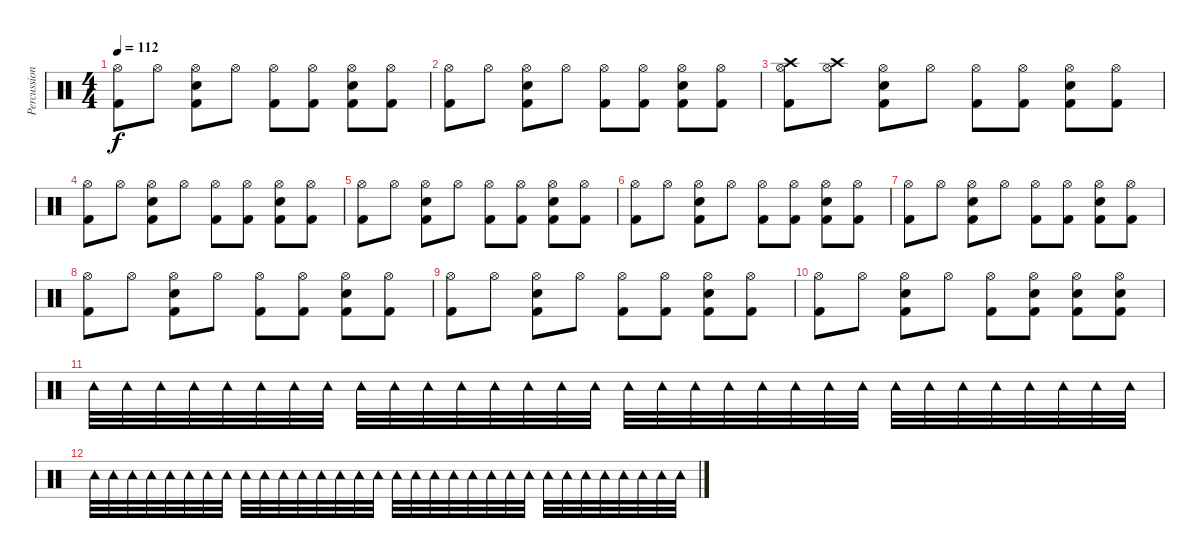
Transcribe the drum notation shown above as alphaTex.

\track ("Percussion" "Percussion") {instrument percussion}
\staff {score}
\articulation defaults
\ts (4 4)
\tempo 112
\clef neutral
\ks c
("Hi-Hat (open)" "Kick (hit) 2").8{dy f} "Hi-Hat (open)".8 ("Hi-Hat (open)" "Electric Snare (hit)" "Kick (hit) 2").8 "Hi-Hat (open)".8 ("Hi-Hat (open)" "Kick (hit) 2").8 ("Hi-Hat (open)" "Kick (hit) 2").8 ("Hi-Hat (open)" "Electric Snare (hit)" "Kick (hit) 2").8 ("Hi-Hat (open)" "Kick (hit) 2").8 |
("Hi-Hat (open)" "Kick (hit) 2").8 "Hi-Hat (open)".8 ("Hi-Hat (open)" "Electric Snare (hit)" "Kick (hit) 2").8 "Hi-Hat (open)".8 ("Hi-Hat (open)" "Kick (hit) 2").8 ("Hi-Hat (open)" "Kick (hit) 2").8 ("Hi-Hat (open)" "Electric Snare (hit)" "Kick (hit) 2").8 ("Hi-Hat (open)" "Kick (hit) 2").8 |
("Hi-Hat (open)" "Crash high (hit)" "Kick (hit) 2").8 ("Hi-Hat (open)" "Crash high (hit)").8 ("Hi-Hat (open)" "Electric Snare (hit)" "Kick (hit) 2").8 "Hi-Hat (open)".8 ("Hi-Hat (open)" "Kick (hit) 2").8 ("Hi-Hat (open)" "Kick (hit) 2").8 ("Hi-Hat (open)" "Electric Snare (hit)" "Kick (hit) 2").8 ("Hi-Hat (open)" "Kick (hit) 2").8 |
("Hi-Hat (open)" "Kick (hit) 2").8 "Hi-Hat (open)".8 ("Hi-Hat (open)" "Electric Snare (hit)" "Kick (hit) 2").8 "Hi-Hat (open)".8 ("Hi-Hat (open)" "Kick (hit) 2").8 ("Hi-Hat (open)" "Kick (hit) 2").8 ("Hi-Hat (open)" "Electric Snare (hit)" "Kick (hit) 2").8 ("Hi-Hat (open)" "Kick (hit) 2").8 |
("Hi-Hat (open)" "Kick (hit) 2").8 "Hi-Hat (open)".8 ("Hi-Hat (open)" "Electric Snare (hit)" "Kick (hit) 2").8 "Hi-Hat (open)".8 ("Hi-Hat (open)" "Kick (hit) 2").8 ("Hi-Hat (open)" "Kick (hit) 2").8 ("Hi-Hat (open)" "Electric Snare (hit)" "Kick (hit) 2").8 ("Hi-Hat (open)" "Kick (hit) 2").8 |
("Hi-Hat (open)" "Kick (hit) 2").8 "Hi-Hat (open)".8 ("Hi-Hat (open)" "Electric Snare (hit)" "Kick (hit) 2").8 "Hi-Hat (open)".8 ("Hi-Hat (open)" "Kick (hit) 2").8 ("Hi-Hat (open)" "Kick (hit) 2").8 ("Hi-Hat (open)" "Electric Snare (hit)" "Kick (hit) 2").8 ("Hi-Hat (open)" "Kick (hit) 2").8 |
("Hi-Hat (open)" "Kick (hit) 2").8 "Hi-Hat (open)".8 ("Hi-Hat (open)" "Electric Snare (hit)" "Kick (hit) 2").8 "Hi-Hat (open)".8 ("Hi-Hat (open)" "Kick (hit) 2").8 ("Hi-Hat (open)" "Kick (hit) 2").8 ("Hi-Hat (open)" "Electric Snare (hit)" "Kick (hit) 2").8 ("Hi-Hat (open)" "Kick (hit) 2").8 |
("Hi-Hat (open)" "Kick (hit) 2").8 "Hi-Hat (open)".8 ("Hi-Hat (open)" "Electric Snare (hit)" "Kick (hit) 2").8 "Hi-Hat (open)".8 ("Hi-Hat (open)" "Kick (hit) 2").8 ("Hi-Hat (open)" "Kick (hit) 2").8 ("Hi-Hat (open)" "Electric Snare (hit)" "Kick (hit) 2").8 ("Hi-Hat (open)" "Kick (hit) 2").8 |
("Hi-Hat (open)" "Kick (hit) 2").8 "Hi-Hat (open)".8 ("Hi-Hat (open)" "Electric Snare (hit)" "Kick (hit) 2").8 "Hi-Hat (open)".8 ("Hi-Hat (open)" "Kick (hit) 2").8 ("Hi-Hat (open)" "Kick (hit) 2").8 ("Hi-Hat (open)" "Electric Snare (hit)" "Kick (hit) 2").8 ("Hi-Hat (open)" "Kick (hit) 2").8 |
("Hi-Hat (open)" "Kick (hit) 2").8 "Hi-Hat (open)".8 ("Hi-Hat (open)" "Electric Snare (hit)" "Kick (hit) 2").8 "Hi-Hat (open)".8 ("Hi-Hat (open)" "Kick (hit) 2").8 ("Hi-Hat (open)" "Electric Snare (hit)" "Kick (hit) 2").8 ("Hi-Hat (open)" "Electric Snare (hit)" "Kick (hit) 2").8 ("Hi-Hat (open)" "Electric Snare (hit)" "Kick (hit) 2").8 |
"Tambourine (hit)".32 "Tambourine (hit)".32 "Tambourine (hit)".32 "Tambourine (hit)".32 "Tambourine (hit)".32 "Tambourine (hit)".32 "Tambourine (hit)".32 "Tambourine (hit)".32 "Tambourine (hit)".32 "Tambourine (hit)".32 "Tambourine (hit)".32 "Tambourine (hit)".32 "Tambourine (hit)".32 "Tambourine (hit)".32 "Tambourine (hit)".32 "Tambourine (hit)".32 "Tambourine (hit)".32{volume 12} "Tambourine (hit)".32 "Tambourine (hit)".32 "Tambourine (hit)".32 "Tambourine (hit)".32 "Tambourine (hit)".32 "Tambourine (hit)".32 "Tambourine (hit)".32 "Tambourine (hit)".32{volume 10} "Tambourine (hit)".32 "Tambourine (hit)".32 "Tambourine (hit)".32 "Tambourine (hit)".32 "Tambourine (hit)".32 "Tambourine (hit)".32 "Tambourine (hit)".32 |
"Tambourine (hit)".32{volume 8} "Tambourine (hit)".32 "Tambourine (hit)".32 "Tambourine (hit)".32 "Tambourine (hit)".32 "Tambourine (hit)".32 "Tambourine (hit)".32 "Tambourine (hit)".32 "Tambourine (hit)".32{volume 6} "Tambourine (hit)".32 "Tambourine (hit)".32 "Tambourine (hit)".32 "Tambourine (hit)".32 "Tambourine (hit)".32 "Tambourine (hit)".32 "Tambourine (hit)".32 "Tambourine (hit)".32{volume 4} "Tambourine (hit)".32 "Tambourine (hit)".32 "Tambourine (hit)".32 "Tambourine (hit)".32 "Tambourine (hit)".32 "Tambourine (hit)".32 "Tambourine (hit)".32 "Tambourine (hit)".32{volume 2} "Tambourine (hit)".32 "Tambourine (hit)".32 "Tambourine (hit)".32 "Tambourine (hit)".32 "Tambourine (hit)".32 "Tambourine (hit)".32 "Tambourine (hit)".32
